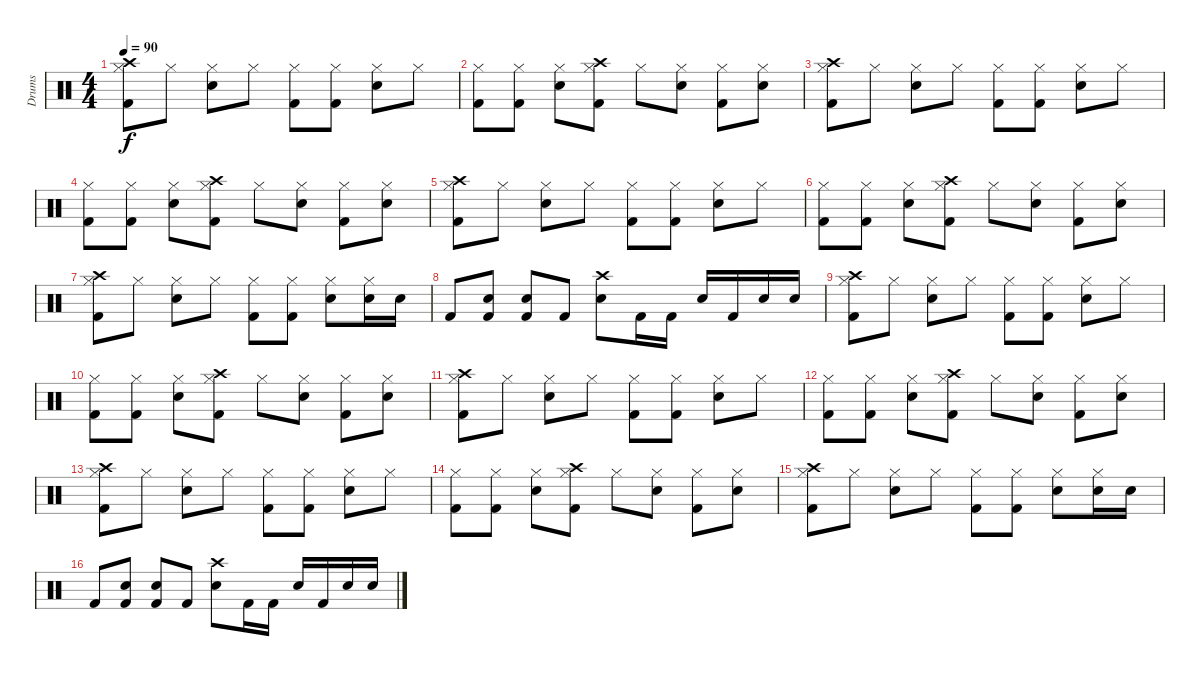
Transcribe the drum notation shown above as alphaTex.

\track ("Drums" "Drums") {instrument percussion}
\staff {score}
\articulation defaults
\ts (4 4)
\tempo 90
\clef neutral
\ks c
("Crash high (hit)" "Hi-Hat (closed)" "Kick (hit) 2").8{dy f} "Hi-Hat (closed)".8 ("Hi-Hat (closed)" "Electric Snare (hit)").8 "Hi-Hat (closed)".8 ("Hi-Hat (closed)" "Kick (hit) 2").8 ("Hi-Hat (closed)" "Kick (hit) 2").8 ("Hi-Hat (closed)" "Electric Snare (hit)").8 "Hi-Hat (closed)".8 |
("Hi-Hat (closed)" "Kick (hit) 2").8 ("Hi-Hat (closed)" "Kick (hit) 2").8 ("Hi-Hat (closed)" "Electric Snare (hit)").8 ("Crash high (hit)" "Hi-Hat (closed)" "Kick (hit) 2").8 "Hi-Hat (closed)".8 ("Hi-Hat (closed)" "Electric Snare (hit)").8 ("Hi-Hat (closed)" "Kick (hit) 2").8 ("Hi-Hat (closed)" "Electric Snare (hit)").8 |
("Crash high (hit)" "Hi-Hat (closed)" "Kick (hit) 2").8 "Hi-Hat (closed)".8 ("Hi-Hat (closed)" "Electric Snare (hit)").8 "Hi-Hat (closed)".8 ("Hi-Hat (closed)" "Kick (hit) 2").8 ("Hi-Hat (closed)" "Kick (hit) 2").8 ("Hi-Hat (closed)" "Electric Snare (hit)").8 "Hi-Hat (closed)".8 |
("Hi-Hat (closed)" "Kick (hit) 2").8 ("Hi-Hat (closed)" "Kick (hit) 2").8 ("Hi-Hat (closed)" "Electric Snare (hit)").8 ("Crash high (hit)" "Hi-Hat (closed)" "Kick (hit) 2").8 "Hi-Hat (closed)".8 ("Hi-Hat (closed)" "Electric Snare (hit)").8 ("Hi-Hat (closed)" "Kick (hit) 2").8 ("Hi-Hat (closed)" "Electric Snare (hit)").8 |
("Crash high (hit)" "Hi-Hat (closed)" "Kick (hit) 2").8 "Hi-Hat (closed)".8 ("Hi-Hat (closed)" "Electric Snare (hit)").8 "Hi-Hat (closed)".8 ("Hi-Hat (closed)" "Kick (hit) 2").8 ("Hi-Hat (closed)" "Kick (hit) 2").8 ("Hi-Hat (closed)" "Electric Snare (hit)").8 "Hi-Hat (closed)".8 |
("Hi-Hat (closed)" "Kick (hit) 2").8 ("Hi-Hat (closed)" "Kick (hit) 2").8 ("Hi-Hat (closed)" "Electric Snare (hit)").8 ("Crash high (hit)" "Hi-Hat (closed)" "Kick (hit) 2").8 "Hi-Hat (closed)".8 ("Hi-Hat (closed)" "Electric Snare (hit)").8 ("Hi-Hat (closed)" "Kick (hit) 2").8 ("Hi-Hat (closed)" "Electric Snare (hit)").8 |
("Crash high (hit)" "Hi-Hat (closed)" "Kick (hit) 2").8 "Hi-Hat (closed)".8 ("Hi-Hat (closed)" "Electric Snare (hit)").8 "Hi-Hat (closed)".8 ("Hi-Hat (closed)" "Kick (hit) 2").8 ("Hi-Hat (closed)" "Kick (hit) 2").8 ("Hi-Hat (closed)" "Electric Snare (hit)").8 ("Electric Snare (hit)" "Hi-Hat (closed)").16 "Electric Snare (hit)".16 |
"Kick (hit) 2".8 ("Electric Snare (hit)" "Kick (hit) 2").8 ("Electric Snare (hit)" "Kick (hit) 2").8 "Kick (hit) 2".8 ("Crash high (hit)" "Electric Snare (hit)").8 "Kick (hit) 2".16 "Kick (hit) 2".16 "Electric Snare (hit)".16 "Kick (hit) 2".16 "Electric Snare (hit)".16 "Electric Snare (hit)".16 |
("Crash high (hit)" "Hi-Hat (closed)" "Kick (hit) 2").8 "Hi-Hat (closed)".8 ("Hi-Hat (closed)" "Electric Snare (hit)").8 "Hi-Hat (closed)".8 ("Hi-Hat (closed)" "Kick (hit) 2").8 ("Hi-Hat (closed)" "Kick (hit) 2").8 ("Hi-Hat (closed)" "Electric Snare (hit)").8 "Hi-Hat (closed)".8 |
("Hi-Hat (closed)" "Kick (hit) 2").8 ("Hi-Hat (closed)" "Kick (hit) 2").8 ("Hi-Hat (closed)" "Electric Snare (hit)").8 ("Crash high (hit)" "Hi-Hat (closed)" "Kick (hit) 2").8 "Hi-Hat (closed)".8 ("Hi-Hat (closed)" "Electric Snare (hit)").8 ("Hi-Hat (closed)" "Kick (hit) 2").8 ("Hi-Hat (closed)" "Electric Snare (hit)").8 |
("Crash high (hit)" "Hi-Hat (closed)" "Kick (hit) 2").8 "Hi-Hat (closed)".8 ("Hi-Hat (closed)" "Electric Snare (hit)").8 "Hi-Hat (closed)".8 ("Hi-Hat (closed)" "Kick (hit) 2").8 ("Hi-Hat (closed)" "Kick (hit) 2").8 ("Hi-Hat (closed)" "Electric Snare (hit)").8 "Hi-Hat (closed)".8 |
("Hi-Hat (closed)" "Kick (hit) 2").8 ("Hi-Hat (closed)" "Kick (hit) 2").8 ("Hi-Hat (closed)" "Electric Snare (hit)").8 ("Crash high (hit)" "Hi-Hat (closed)" "Kick (hit) 2").8 "Hi-Hat (closed)".8 ("Hi-Hat (closed)" "Electric Snare (hit)").8 ("Hi-Hat (closed)" "Kick (hit) 2").8 ("Hi-Hat (closed)" "Electric Snare (hit)").8 |
("Crash high (hit)" "Hi-Hat (closed)" "Kick (hit) 2").8 "Hi-Hat (closed)".8 ("Hi-Hat (closed)" "Electric Snare (hit)").8 "Hi-Hat (closed)".8 ("Hi-Hat (closed)" "Kick (hit) 2").8 ("Hi-Hat (closed)" "Kick (hit) 2").8 ("Hi-Hat (closed)" "Electric Snare (hit)").8 "Hi-Hat (closed)".8 |
("Hi-Hat (closed)" "Kick (hit) 2").8 ("Hi-Hat (closed)" "Kick (hit) 2").8 ("Hi-Hat (closed)" "Electric Snare (hit)").8 ("Crash high (hit)" "Hi-Hat (closed)" "Kick (hit) 2").8 "Hi-Hat (closed)".8 ("Hi-Hat (closed)" "Electric Snare (hit)").8 ("Hi-Hat (closed)" "Kick (hit) 2").8 ("Hi-Hat (closed)" "Electric Snare (hit)").8 |
("Crash high (hit)" "Hi-Hat (closed)" "Kick (hit) 2").8 "Hi-Hat (closed)".8 ("Hi-Hat (closed)" "Electric Snare (hit)").8 "Hi-Hat (closed)".8 ("Hi-Hat (closed)" "Kick (hit) 2").8 ("Hi-Hat (closed)" "Kick (hit) 2").8 ("Hi-Hat (closed)" "Electric Snare (hit)").8 ("Electric Snare (hit)" "Hi-Hat (closed)").16 "Electric Snare (hit)".16 |
"Kick (hit) 2".8 ("Electric Snare (hit)" "Kick (hit) 2").8 ("Electric Snare (hit)" "Kick (hit) 2").8 "Kick (hit) 2".8 ("Crash high (hit)" "Electric Snare (hit)").8 "Kick (hit) 2".16 "Kick (hit) 2".16 "Electric Snare (hit)".16 "Kick (hit) 2".16 "Electric Snare (hit)".16 "Electric Snare (hit)".16
